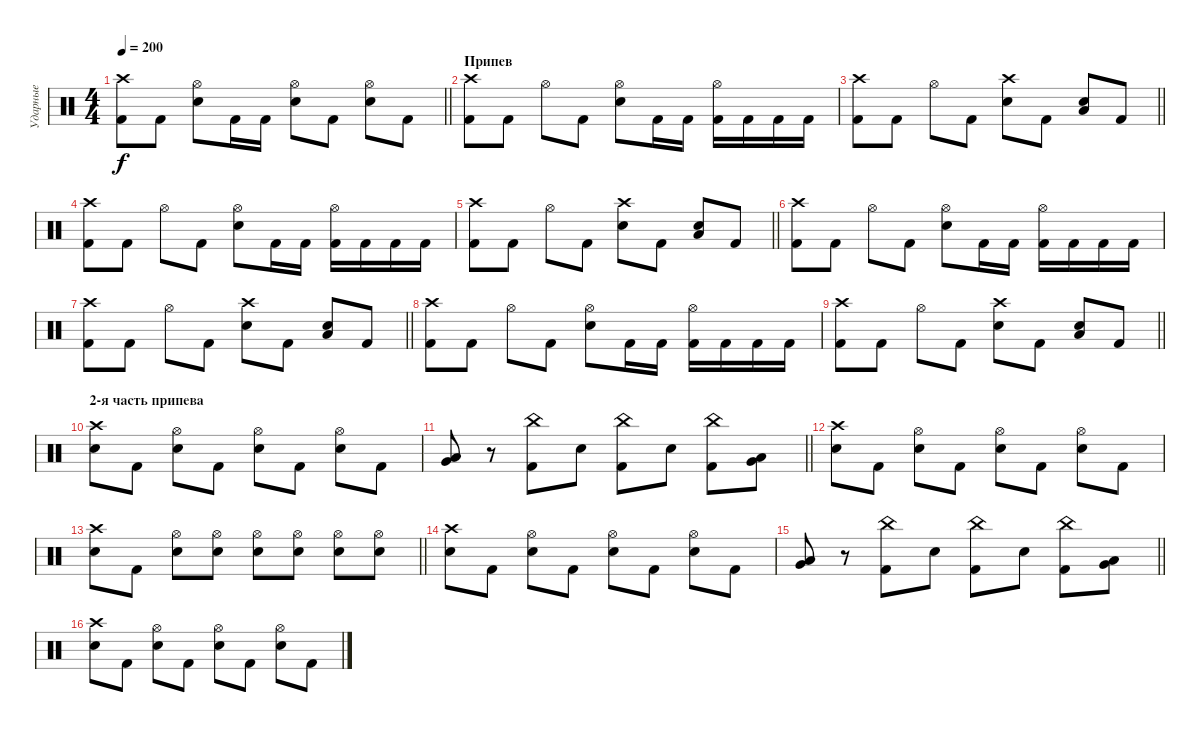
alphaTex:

\track ("Ударные" "Ударные") {instrument percussion}
\staff {score}
\articulation defaults
\ts (4 4)
\tempo 200
\clef neutral
\barLineRight lightlight
\ks c
("Crash high (hit)" "Kick (hit) 2").8{dy f} "Kick (hit) 2".8 ("Electric Snare (hit)" "Hi-Hat (open)").8 "Kick (hit) 2".16 "Kick (hit) 2".16 ("Electric Snare (hit)" "Hi-Hat (open)").8 "Kick (hit) 2".8 ("Electric Snare (hit)" "Hi-Hat (open)").8 "Kick (hit) 2".8 |
\section ("" "Припев")
("Kick (hit) 2" "Crash high (hit)").8 "Kick (hit) 2".8 "Hi-Hat (open)".8 "Kick (hit) 2".8 ("Electric Snare (hit)" "Hi-Hat (open)").8 "Kick (hit) 2".16 "Kick (hit) 2".16 ("Kick (hit) 2" "Hi-Hat (open)").16 "Kick (hit) 2".16 "Kick (hit) 2".16 "Kick (hit) 2".16 |
\barLineRight lightlight
("Kick (hit) 2" "Crash high (hit)").8 "Kick (hit) 2".8 "Hi-Hat (open)".8 "Kick (hit) 2".8 ("Electric Snare (hit)" "Crash high (hit)").8 "Kick (hit) 2".8 ("Electric Snare (hit)" "Low Floor Tom (hit)").8 "Kick (hit) 2".8 |
("Kick (hit) 2" "Crash high (hit)").8 "Kick (hit) 2".8 "Hi-Hat (open)".8 "Kick (hit) 2".8 ("Electric Snare (hit)" "Hi-Hat (open)").8 "Kick (hit) 2".16 "Kick (hit) 2".16 ("Kick (hit) 2" "Hi-Hat (open)").16 "Kick (hit) 2".16 "Kick (hit) 2".16 "Kick (hit) 2".16 |
\barLineRight lightlight
("Kick (hit) 2" "Crash high (hit)").8 "Kick (hit) 2".8 "Hi-Hat (open)".8 "Kick (hit) 2".8 ("Electric Snare (hit)" "Crash high (hit)").8 "Kick (hit) 2".8 ("Electric Snare (hit)" "Low Floor Tom (hit)").8 "Kick (hit) 2".8 |
("Kick (hit) 2" "Crash high (hit)").8 "Kick (hit) 2".8 "Hi-Hat (open)".8 "Kick (hit) 2".8 ("Electric Snare (hit)" "Hi-Hat (open)").8 "Kick (hit) 2".16 "Kick (hit) 2".16 ("Kick (hit) 2" "Hi-Hat (open)").16 "Kick (hit) 2".16 "Kick (hit) 2".16 "Kick (hit) 2".16 |
\barLineRight lightlight
("Kick (hit) 2" "Crash high (hit)").8 "Kick (hit) 2".8 "Hi-Hat (open)".8 "Kick (hit) 2".8 ("Electric Snare (hit)" "Crash high (hit)").8 "Kick (hit) 2".8 ("Electric Snare (hit)" "Low Floor Tom (hit)").8 "Kick (hit) 2".8 |
("Kick (hit) 2" "Crash high (hit)").8 "Kick (hit) 2".8 "Hi-Hat (open)".8 "Kick (hit) 2".8 ("Electric Snare (hit)" "Hi-Hat (open)").8 "Kick (hit) 2".16 "Kick (hit) 2".16 ("Kick (hit) 2" "Hi-Hat (open)").16 "Kick (hit) 2".16 "Kick (hit) 2".16 "Kick (hit) 2".16 |
\barLineRight lightlight
("Kick (hit) 2" "Crash high (hit)").8 "Kick (hit) 2".8 "Hi-Hat (open)".8 "Kick (hit) 2".8 ("Electric Snare (hit)" "Crash high (hit)").8 "Kick (hit) 2".8 ("Electric Snare (hit)" "Low Floor Tom (hit)").8 "Kick (hit) 2".8 |
\section ("" "2-я часть припева")
("Electric Snare (hit)" "Crash high (hit)").8 "Kick (hit) 2".8 ("Electric Snare (hit)" "Hi-Hat (open)").8 "Kick (hit) 2".8 ("Hi-Hat (open)" "Electric Snare (hit)").8 "Kick (hit) 2".8 ("Electric Snare (hit)" "Hi-Hat (open)").8 "Kick (hit) 2".8 |
\barLineRight lightlight
("Very Low Tom (hit)" "Low Floor Tom (hit)").8 r.8 ("Kick (hit) 2" "China (hit)").8 "Electric Snare (hit)".8 ("Kick (hit) 2" "China (hit)").8 "Electric Snare (hit)".8 ("Kick (hit) 2" "China (hit)").8 ("Low Floor Tom (hit)" "Very Low Tom (hit)").8 |
("Electric Snare (hit)" "Crash high (hit)").8 "Kick (hit) 2".8 ("Electric Snare (hit)" "Hi-Hat (open)").8 "Kick (hit) 2".8 ("Hi-Hat (open)" "Electric Snare (hit)").8 "Kick (hit) 2".8 ("Electric Snare (hit)" "Hi-Hat (open)").8 "Kick (hit) 2".8 |
\barLineRight lightlight
("Electric Snare (hit)" "Crash high (hit)").8 "Kick (hit) 2".8 ("Electric Snare (hit)" "Hi-Hat (open)").8 ("Hi-Hat (open)" "Electric Snare (hit)").8 ("Hi-Hat (open)" "Electric Snare (hit)").8 ("Hi-Hat (open)" "Electric Snare (hit)").8 ("Electric Snare (hit)" "Hi-Hat (open)").8 ("Hi-Hat (open)" "Electric Snare (hit)").8 |
("Electric Snare (hit)" "Crash high (hit)").8 "Kick (hit) 2".8 ("Electric Snare (hit)" "Hi-Hat (open)").8 "Kick (hit) 2".8 ("Hi-Hat (open)" "Electric Snare (hit)").8 "Kick (hit) 2".8 ("Electric Snare (hit)" "Hi-Hat (open)").8 "Kick (hit) 2".8 |
\barLineRight lightlight
("Very Low Tom (hit)" "Low Floor Tom (hit)").8 r.8 ("Kick (hit) 2" "China (hit)").8 "Electric Snare (hit)".8 ("Kick (hit) 2" "China (hit)").8 "Electric Snare (hit)".8 ("Kick (hit) 2" "China (hit)").8 ("Low Floor Tom (hit)" "Very Low Tom (hit)").8 |
("Electric Snare (hit)" "Crash high (hit)").8 "Kick (hit) 2".8 ("Electric Snare (hit)" "Hi-Hat (open)").8 "Kick (hit) 2".8 ("Hi-Hat (open)" "Electric Snare (hit)").8 "Kick (hit) 2".8 ("Electric Snare (hit)" "Hi-Hat (open)").8 "Kick (hit) 2".8
